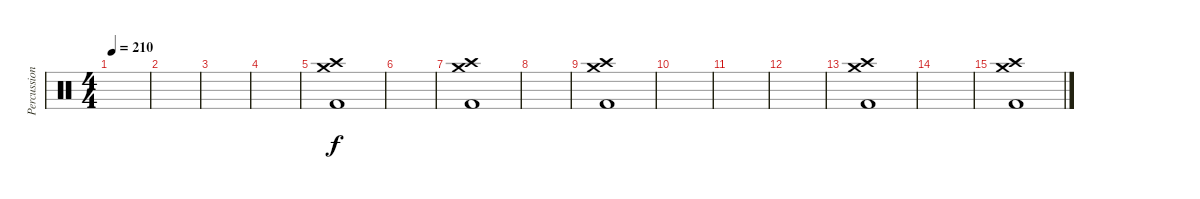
\track ("Percussions" "Percussion") {instrument percussion}
\staff {score}
\articulation defaults
\ts (4 4)
\tempo 210
\clef neutral
\ks c
|
|
|
|
("Kick (hit) 2" "Crash high (hit)" "Crash medium (hit)").1 |
|
("Kick (hit) 2" "Crash high (hit)" "Crash medium (hit)").1 |
|
("Kick (hit) 2" "Crash high (hit)" "Crash medium (hit)").1 |
|
|
|
("Kick (hit) 2" "Crash high (hit)" "Crash medium (hit)").1 |
|
("Kick (hit) 2" "Crash high (hit)" "Crash medium (hit)").1
